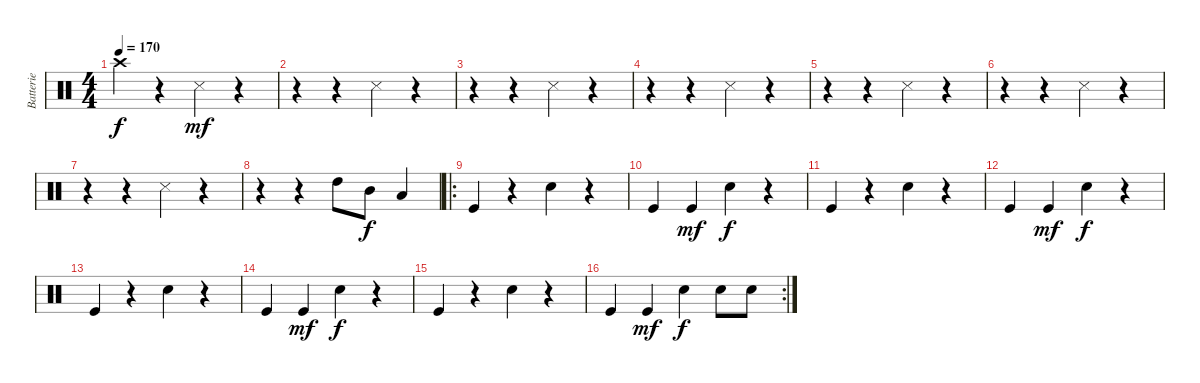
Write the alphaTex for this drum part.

\track ("Batterie" "Batterie") {instrument percussion}
\staff {score}
\articulation defaults
\ts (4 4)
\tempo 170
\clef neutral
\ks c "Crash high (hit)".4{dy f}
r.4 "Snare (side stick) 3".4{dy mf} r.4 |
r.4 r.4 "Snare (side stick) 3".4 r.4 |
r.4 r.4 "Snare (side stick) 3".4 r.4 |
r.4 r.4 "Snare (side stick) 3".4 r.4 |
r.4 r.4 "Snare (side stick) 3".4 r.4 |
r.4 r.4 "Snare (side stick) 3".4 r.4 |
r.4 r.4 "Snare (side stick) 3".4 r.4 |
r.4 r.4 "High Tom (hit)".8 "Mid Tom (hit)".8{dy f} "Low Tom (hit)".4 |
\ro "Kick (hit)".4
r.4 "Snare (hit) 2".4 r.4 |
"Kick (hit)".4 "Kick (hit)".4{dy mf} "Snare (hit) 2".4{dy f} r.4 |
"Kick (hit)".4 r.4 "Snare (hit) 2".4 r.4 |
"Kick (hit)".4 "Kick (hit)".4{dy mf} "Snare (hit) 2".4{dy f} r.4 |
"Kick (hit)".4 r.4 "Snare (hit) 2".4 r.4 |
"Kick (hit)".4 "Kick (hit)".4{dy mf} "Snare (hit) 2".4{dy f} r.4 |
"Kick (hit)".4 r.4 "Snare (hit) 2".4 r.4 |
\rc 2 "Kick (hit)".4 "Kick (hit)".4{dy mf} "Snare (hit) 2".4{dy f} "Snare (hit) 2".8 "Snare (hit) 2".8
